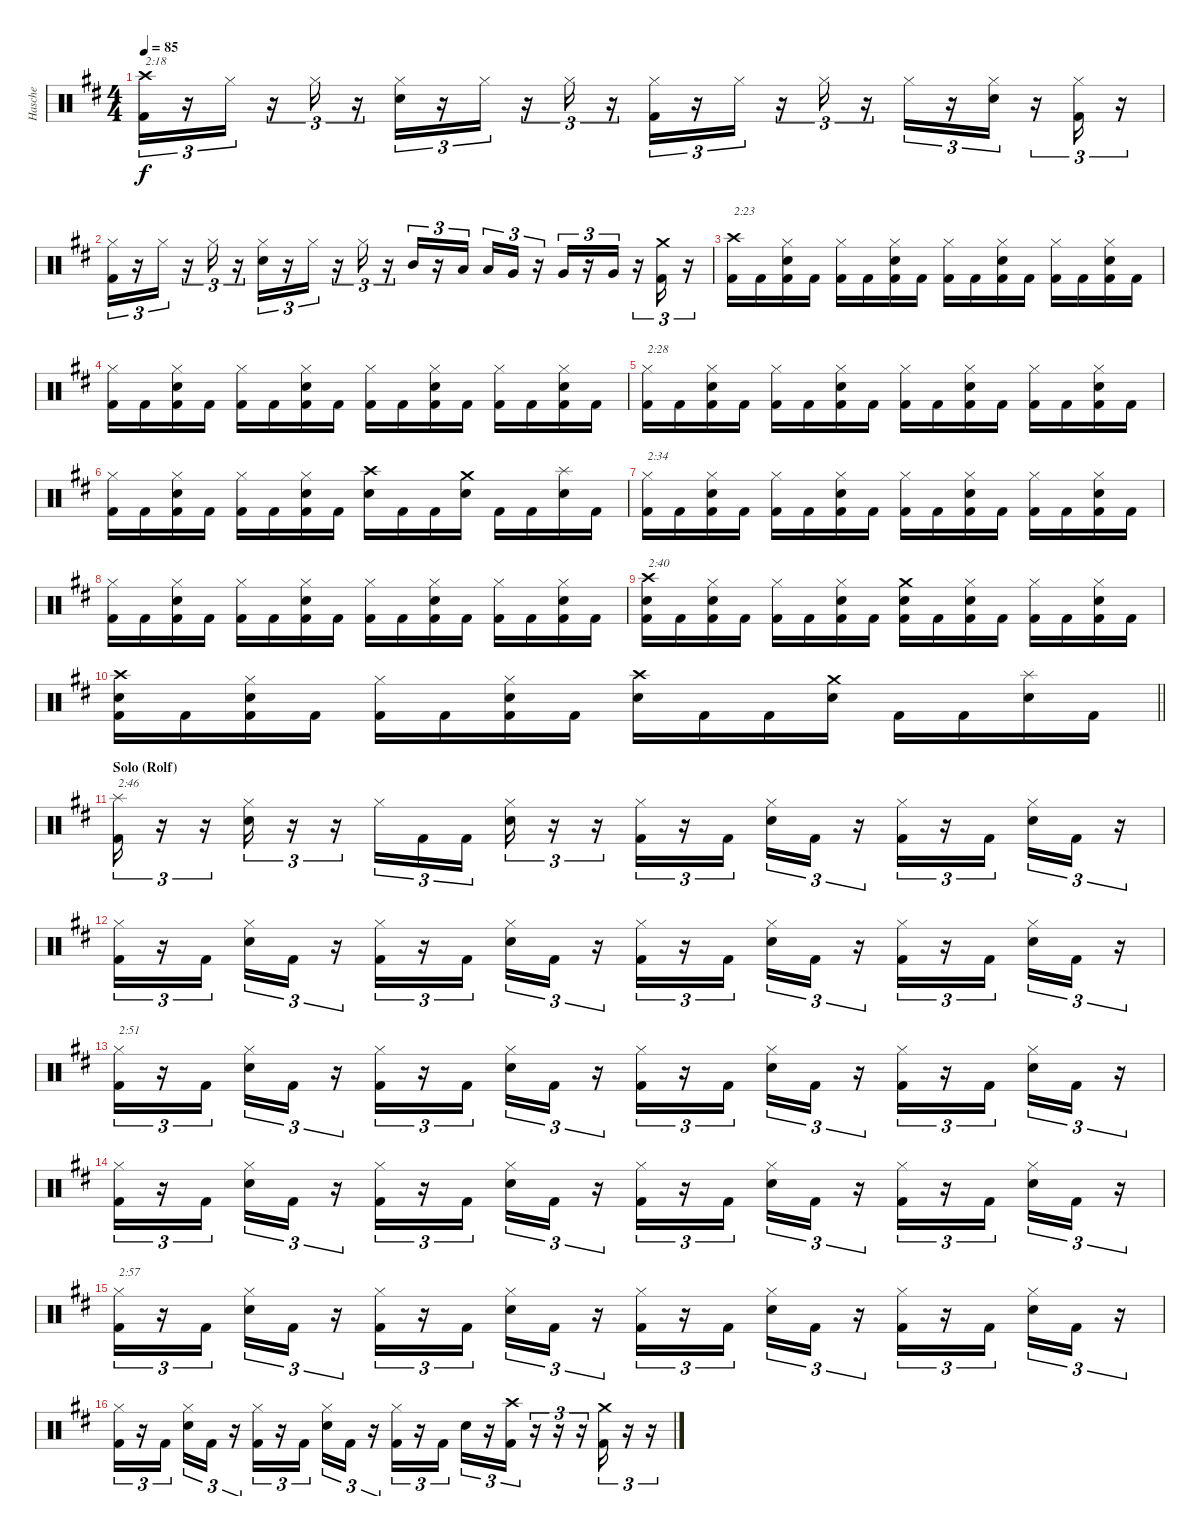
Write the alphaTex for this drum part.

\track ("Hasche" "Hasche") {instrument percussion}
\staff {score}
\articulation defaults
\ts (4 4)
\tempo 85
\clef neutral
\ks bminor
("Crash high (hit)" "Kick (hit) 2").16{tu (3 2) txt "2:18" dy f} r.16{tu (3 2)} "Hi-Hat (closed)".16{tu (3 2)} r.16{tu (3 2)} "Hi-Hat (closed)".16{tu (3 2)} r.16{tu (3 2)} ("Hi-Hat (closed)" "Snare (hit) 2").16{tu (3 2)} r.16{tu (3 2)} "Hi-Hat (closed)".16{tu (3 2)} r.16{tu (3 2)} "Hi-Hat (closed)".16{tu (3 2)} r.16{tu (3 2)} ("Hi-Hat (closed)" "Kick (hit) 2").16{tu (3 2)} r.16{tu (3 2)} "Hi-Hat (closed)".16{tu (3 2)} r.16{tu (3 2)} "Hi-Hat (closed)".16{tu (3 2)} r.16{tu (3 2)} "Hi-Hat (closed)".16{tu (3 2)} r.16{tu (3 2)} ("Hi-Hat (closed)" "Snare (hit) 2").16{tu (3 2)} r.16{tu (3 2)} ("Hi-Hat (closed)" "Kick (hit) 2").16{tu (3 2)} r.16{tu (3 2)} |
("Hi-Hat (closed)" "Kick (hit) 2").16{tu (3 2)} r.16{tu (3 2)} "Hi-Hat (closed)".16{tu (3 2)} r.16{tu (3 2)} "Hi-Hat (closed)".16{tu (3 2)} r.16{tu (3 2)} ("Hi-Hat (closed)" "Snare (hit) 2").16{tu (3 2)} r.16{tu (3 2)} "Hi-Hat (closed)".16{tu (3 2)} r.16{tu (3 2)} "Hi-Hat (closed)".16{tu (3 2)} r.16{tu (3 2)} "Mid Tom (hit)".16{tu (3 2)} r.16{tu (3 2)} "Low Tom (hit)".16{tu (3 2) beam splitsecondary} "Low Tom (hit)".16{tu (3 2)} "Very Low Tom (hit)".16{tu (3 2)} r.16{tu (3 2)} "Very Low Tom (hit)".16{tu (3 2)} r.16{tu (3 2)} "Very Low Tom (hit)".16{tu (3 2)} r.16{tu (3 2)} ("Crash medium (hit)" "Kick (hit) 2").16{tu (3 2)} r.16{tu (3 2)} |
("Crash high (hit)" "Kick (hit) 2").16{txt "2:23"} "Kick (hit) 2".16 ("Hi-Hat (closed)" "Snare (hit) 2" "Kick (hit) 2").16 "Kick (hit) 2".16 ("Hi-Hat (closed)" "Kick (hit) 2").16 "Kick (hit) 2".16 ("Hi-Hat (closed)" "Snare (hit) 2" "Kick (hit) 2").16 "Kick (hit) 2".16 ("Hi-Hat (closed)" "Kick (hit) 2").16 "Kick (hit) 2".16 ("Hi-Hat (closed)" "Snare (hit) 2" "Kick (hit) 2").16 "Kick (hit) 2".16 ("Hi-Hat (closed)" "Kick (hit) 2").16 "Kick (hit) 2".16 ("Hi-Hat (closed)" "Snare (hit) 2" "Kick (hit) 2").16 "Kick (hit) 2".16 |
("Hi-Hat (closed)" "Kick (hit) 2").16 "Kick (hit) 2".16 ("Hi-Hat (closed)" "Snare (hit) 2" "Kick (hit) 2").16 "Kick (hit) 2".16 ("Hi-Hat (closed)" "Kick (hit) 2").16 "Kick (hit) 2".16 ("Hi-Hat (closed)" "Snare (hit) 2" "Kick (hit) 2").16 "Kick (hit) 2".16 ("Hi-Hat (closed)" "Kick (hit) 2").16 "Kick (hit) 2".16 ("Hi-Hat (closed)" "Snare (hit) 2" "Kick (hit) 2").16 "Kick (hit) 2".16 ("Hi-Hat (closed)" "Kick (hit) 2").16 "Kick (hit) 2".16 ("Hi-Hat (closed)" "Snare (hit) 2" "Kick (hit) 2").16 "Kick (hit) 2".16 |
("Hi-Hat (closed)" "Kick (hit) 2").16{txt "2:28"} "Kick (hit) 2".16 ("Hi-Hat (closed)" "Snare (hit) 2" "Kick (hit) 2").16 "Kick (hit) 2".16 ("Hi-Hat (closed)" "Kick (hit) 2").16 "Kick (hit) 2".16 ("Hi-Hat (closed)" "Snare (hit) 2" "Kick (hit) 2").16 "Kick (hit) 2".16 ("Hi-Hat (closed)" "Kick (hit) 2").16 "Kick (hit) 2".16 ("Hi-Hat (closed)" "Snare (hit) 2" "Kick (hit) 2").16 "Kick (hit) 2".16 ("Hi-Hat (closed)" "Kick (hit) 2").16 "Kick (hit) 2".16 ("Hi-Hat (closed)" "Snare (hit) 2" "Kick (hit) 2").16 "Kick (hit) 2".16 |
("Hi-Hat (closed)" "Kick (hit) 2").16 "Kick (hit) 2".16 ("Hi-Hat (closed)" "Snare (hit) 2" "Kick (hit) 2").16 "Kick (hit) 2".16 ("Hi-Hat (closed)" "Kick (hit) 2").16 "Kick (hit) 2".16 ("Hi-Hat (closed)" "Snare (hit) 2" "Kick (hit) 2").16 "Kick (hit) 2".16 ("Crash high (hit)" "Snare (hit) 2").16 "Kick (hit) 2".16 "Kick (hit) 2".16 ("Crash medium (hit)" "Snare (hit) 2").16 "Kick (hit) 2".16 "Kick (hit) 2".16 ("Splash (hit)" "Snare (hit) 2").16 "Kick (hit) 2".16 |
("Hi-Hat (closed)" "Kick (hit) 2").16{txt "2:34"} "Kick (hit) 2".16 ("Hi-Hat (closed)" "Snare (hit) 2" "Kick (hit) 2").16 "Kick (hit) 2".16 ("Hi-Hat (closed)" "Kick (hit) 2").16 "Kick (hit) 2".16 ("Hi-Hat (closed)" "Snare (hit) 2" "Kick (hit) 2").16 "Kick (hit) 2".16 ("Hi-Hat (closed)" "Kick (hit) 2").16 "Kick (hit) 2".16 ("Hi-Hat (closed)" "Snare (hit) 2" "Kick (hit) 2").16 "Kick (hit) 2".16 ("Hi-Hat (closed)" "Kick (hit) 2").16 "Kick (hit) 2".16 ("Hi-Hat (closed)" "Snare (hit) 2" "Kick (hit) 2").16 "Kick (hit) 2".16 |
("Hi-Hat (closed)" "Kick (hit) 2").16 "Kick (hit) 2".16 ("Hi-Hat (closed)" "Snare (hit) 2" "Kick (hit) 2").16 "Kick (hit) 2".16 ("Hi-Hat (closed)" "Kick (hit) 2").16 "Kick (hit) 2".16 ("Hi-Hat (closed)" "Snare (hit) 2" "Kick (hit) 2").16 "Kick (hit) 2".16 ("Hi-Hat (closed)" "Kick (hit) 2").16 "Kick (hit) 2".16 ("Hi-Hat (closed)" "Snare (hit) 2" "Kick (hit) 2").16 "Kick (hit) 2".16 ("Hi-Hat (closed)" "Kick (hit) 2").16 "Kick (hit) 2".16 ("Hi-Hat (closed)" "Snare (hit) 2" "Kick (hit) 2").16 "Kick (hit) 2".16 |
("Crash high (hit)" "Snare (hit) 2" "Kick (hit) 2").16{txt "2:40"} "Kick (hit) 2".16 ("Hi-Hat (closed)" "Snare (hit) 2" "Kick (hit) 2").16 "Kick (hit) 2".16 ("Hi-Hat (closed)" "Kick (hit) 2").16 "Kick (hit) 2".16 ("Hi-Hat (closed)" "Snare (hit) 2" "Kick (hit) 2").16 "Kick (hit) 2".16 ("Crash medium (hit)" "Snare (hit) 2" "Kick (hit) 2").16 "Kick (hit) 2".16 ("Hi-Hat (closed)" "Snare (hit) 2" "Kick (hit) 2").16 "Kick (hit) 2".16 ("Hi-Hat (closed)" "Kick (hit) 2").16 "Kick (hit) 2".16 ("Hi-Hat (closed)" "Snare (hit) 2" "Kick (hit) 2").16 "Kick (hit) 2".16 |
\barLineRight lightlight
("Crash high (hit)" "Snare (hit) 2" "Kick (hit) 2").16 "Kick (hit) 2".16 ("Hi-Hat (closed)" "Snare (hit) 2" "Kick (hit) 2").16 "Kick (hit) 2".16 ("Hi-Hat (closed)" "Kick (hit) 2").16 "Kick (hit) 2".16 ("Hi-Hat (closed)" "Snare (hit) 2" "Kick (hit) 2").16 "Kick (hit) 2".16 ("Crash high (hit)" "Snare (hit) 2").16 "Kick (hit) 2".16 "Kick (hit) 2".16 ("Crash medium (hit)" "Snare (hit) 2").16 "Kick (hit) 2".16 "Kick (hit) 2".16 ("Splash (hit)" "Snare (hit) 2").16 "Kick (hit) 2".16 |
\section ("" "Solo (Rolf)")
("Splash (hit)" "Kick (hit) 2").16{tu (3 2) txt "2:46"} r.16{tu (3 2)} r.16{tu (3 2)} ("Hi-Hat (closed)" "Snare (hit) 2").16{tu (3 2)} r.16{tu (3 2)} r.16{tu (3 2)} "Hi-Hat (closed)".16{tu (3 2)} "Kick (hit) 2".16{tu (3 2)} "Kick (hit) 2".16{tu (3 2) beam splitsecondary} ("Hi-Hat (closed)" "Snare (hit) 2").16{tu (3 2)} r.16{tu (3 2)} r.16{tu (3 2)} ("Hi-Hat (closed)" "Kick (hit) 2").16{tu (3 2)} r.16{tu (3 2)} "Kick (hit) 2".16{tu (3 2) beam splitsecondary} ("Hi-Hat (closed)" "Snare (hit) 2").16{tu (3 2)} "Kick (hit) 2".16{tu (3 2)} r.16{tu (3 2)} ("Hi-Hat (closed)" "Kick (hit) 2").16{tu (3 2)} r.16{tu (3 2)} "Kick (hit) 2".16{tu (3 2) beam splitsecondary} ("Hi-Hat (closed)" "Snare (hit) 2").16{tu (3 2)} "Kick (hit) 2".16{tu (3 2)} r.16{tu (3 2)} |
("Hi-Hat (closed)" "Kick (hit) 2").16{tu (3 2)} r.16{tu (3 2)} "Kick (hit) 2".16{tu (3 2) beam splitsecondary} ("Hi-Hat (closed)" "Snare (hit) 2").16{tu (3 2)} "Kick (hit) 2".16{tu (3 2)} r.16{tu (3 2)} ("Hi-Hat (closed)" "Kick (hit) 2").16{tu (3 2)} r.16{tu (3 2)} "Kick (hit) 2".16{tu (3 2) beam splitsecondary} ("Hi-Hat (closed)" "Snare (hit) 2").16{tu (3 2)} "Kick (hit) 2".16{tu (3 2)} r.16{tu (3 2)} ("Hi-Hat (closed)" "Kick (hit) 2").16{tu (3 2)} r.16{tu (3 2)} "Kick (hit) 2".16{tu (3 2) beam splitsecondary} ("Hi-Hat (closed)" "Snare (hit) 2").16{tu (3 2)} "Kick (hit) 2".16{tu (3 2)} r.16{tu (3 2)} ("Hi-Hat (closed)" "Kick (hit) 2").16{tu (3 2)} r.16{tu (3 2)} "Kick (hit) 2".16{tu (3 2) beam splitsecondary} ("Hi-Hat (closed)" "Snare (hit) 2").16{tu (3 2)} "Kick (hit) 2".16{tu (3 2)} r.16{tu (3 2)} |
("Hi-Hat (closed)" "Kick (hit) 2").16{tu (3 2) txt "2:51"} r.16{tu (3 2)} "Kick (hit) 2".16{tu (3 2) beam splitsecondary} ("Hi-Hat (closed)" "Snare (hit) 2").16{tu (3 2)} "Kick (hit) 2".16{tu (3 2)} r.16{tu (3 2)} ("Hi-Hat (closed)" "Kick (hit) 2").16{tu (3 2)} r.16{tu (3 2)} "Kick (hit) 2".16{tu (3 2) beam splitsecondary} ("Hi-Hat (closed)" "Snare (hit) 2").16{tu (3 2)} "Kick (hit) 2".16{tu (3 2)} r.16{tu (3 2)} ("Hi-Hat (closed)" "Kick (hit) 2").16{tu (3 2)} r.16{tu (3 2)} "Kick (hit) 2".16{tu (3 2) beam splitsecondary} ("Hi-Hat (closed)" "Snare (hit) 2").16{tu (3 2)} "Kick (hit) 2".16{tu (3 2)} r.16{tu (3 2)} ("Hi-Hat (closed)" "Kick (hit) 2").16{tu (3 2)} r.16{tu (3 2)} "Kick (hit) 2".16{tu (3 2) beam splitsecondary} ("Hi-Hat (closed)" "Snare (hit) 2").16{tu (3 2)} "Kick (hit) 2".16{tu (3 2)} r.16{tu (3 2)} |
("Hi-Hat (closed)" "Kick (hit) 2").16{tu (3 2)} r.16{tu (3 2)} "Kick (hit) 2".16{tu (3 2) beam splitsecondary} ("Hi-Hat (closed)" "Snare (hit) 2").16{tu (3 2)} "Kick (hit) 2".16{tu (3 2)} r.16{tu (3 2)} ("Hi-Hat (closed)" "Kick (hit) 2").16{tu (3 2)} r.16{tu (3 2)} "Kick (hit) 2".16{tu (3 2) beam splitsecondary} ("Hi-Hat (closed)" "Snare (hit) 2").16{tu (3 2)} "Kick (hit) 2".16{tu (3 2)} r.16{tu (3 2)} ("Hi-Hat (closed)" "Kick (hit) 2").16{tu (3 2)} r.16{tu (3 2)} "Kick (hit) 2".16{tu (3 2) beam splitsecondary} ("Hi-Hat (closed)" "Snare (hit) 2").16{tu (3 2)} "Kick (hit) 2".16{tu (3 2)} r.16{tu (3 2)} ("Hi-Hat (closed)" "Kick (hit) 2").16{tu (3 2)} r.16{tu (3 2)} "Kick (hit) 2".16{tu (3 2) beam splitsecondary} ("Hi-Hat (closed)" "Snare (hit) 2").16{tu (3 2)} "Kick (hit) 2".16{tu (3 2)} r.16{tu (3 2)} |
("Hi-Hat (closed)" "Kick (hit) 2").16{tu (3 2) txt "2:57"} r.16{tu (3 2)} "Kick (hit) 2".16{tu (3 2) beam splitsecondary} ("Hi-Hat (closed)" "Snare (hit) 2").16{tu (3 2)} "Kick (hit) 2".16{tu (3 2)} r.16{tu (3 2)} ("Hi-Hat (closed)" "Kick (hit) 2").16{tu (3 2)} r.16{tu (3 2)} "Kick (hit) 2".16{tu (3 2) beam splitsecondary} ("Hi-Hat (closed)" "Snare (hit) 2").16{tu (3 2)} "Kick (hit) 2".16{tu (3 2)} r.16{tu (3 2)} ("Hi-Hat (closed)" "Kick (hit) 2").16{tu (3 2)} r.16{tu (3 2)} "Kick (hit) 2".16{tu (3 2) beam splitsecondary} ("Hi-Hat (closed)" "Snare (hit) 2").16{tu (3 2)} "Kick (hit) 2".16{tu (3 2)} r.16{tu (3 2)} ("Hi-Hat (closed)" "Kick (hit) 2").16{tu (3 2)} r.16{tu (3 2)} "Kick (hit) 2".16{tu (3 2) beam splitsecondary} ("Hi-Hat (closed)" "Snare (hit) 2").16{tu (3 2)} "Kick (hit) 2".16{tu (3 2)} r.16{tu (3 2)} |
("Hi-Hat (closed)" "Kick (hit) 2").16{tu (3 2)} r.16{tu (3 2)} "Kick (hit) 2".16{tu (3 2) beam splitsecondary} ("Hi-Hat (closed)" "Snare (hit) 2").16{tu (3 2)} "Kick (hit) 2".16{tu (3 2)} r.16{tu (3 2)} ("Hi-Hat (closed)" "Kick (hit) 2").16{tu (3 2)} r.16{tu (3 2)} "Kick (hit) 2".16{tu (3 2) beam splitsecondary} ("Hi-Hat (closed)" "Snare (hit) 2").16{tu (3 2)} "Kick (hit) 2".16{tu (3 2)} r.16{tu (3 2)} ("Hi-Hat (closed)" "Kick (hit) 2").16{tu (3 2)} r.16{tu (3 2)} "Kick (hit) 2".16{tu (3 2)} "Snare (hit) 2".16{tu (3 2)} r.16{tu (3 2)} ("Crash high (hit)" "Kick (hit) 2").16{tu (3 2)} r.16{tu (3 2)} r.16{tu (3 2)} r.16{tu (3 2)} ("Crash medium (hit)" "Kick (hit) 2").16{tu (3 2)} r.16{tu (3 2)} r.16{tu (3 2)}
